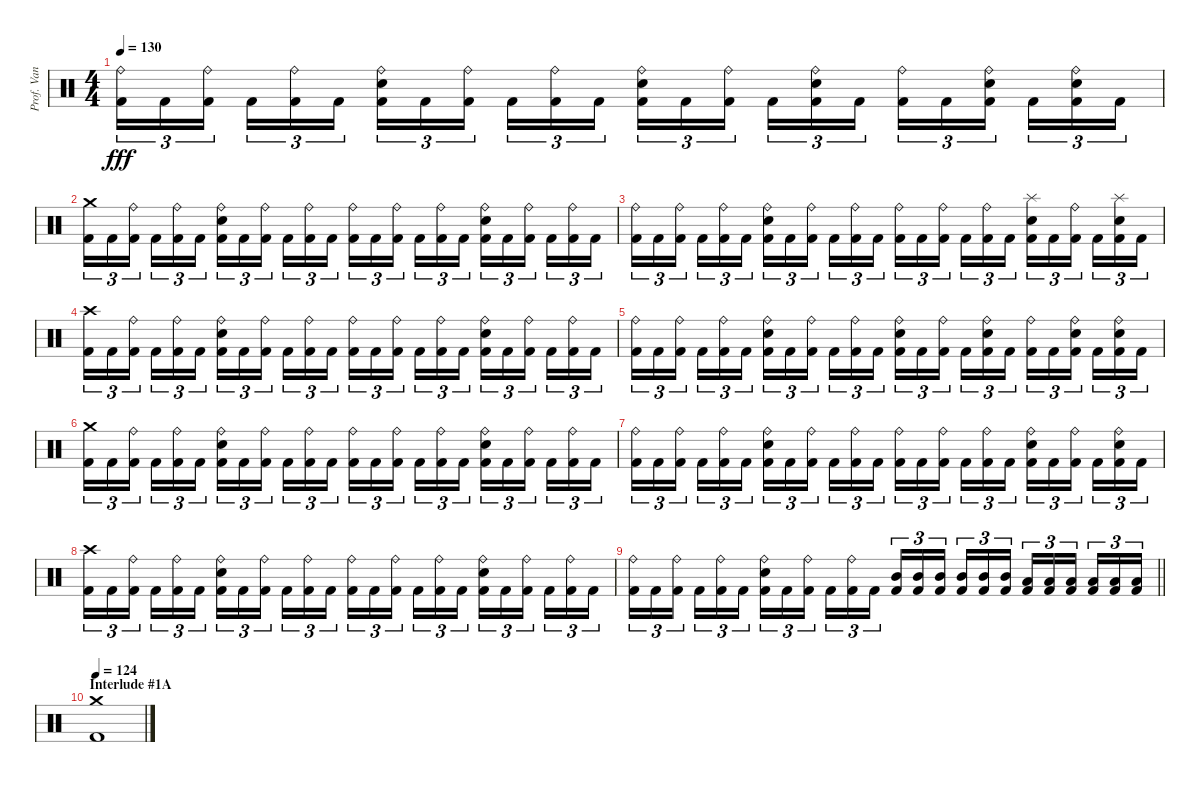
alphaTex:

\track ("Prof. Van Helsing (Drums)" "Prof. Van ") {instrument percussion}
\staff {score}
\articulation defaults
\ts (4 4)
\tempo 130
\clef neutral
\ks c
("Ride (bell)" "Kick (hit) 2").16{tu (3 2) dy fff} "Kick (hit) 2".16{tu (3 2)} ("Ride (bell)" "Kick (hit) 2").16{tu (3 2) beam splitsecondary} "Kick (hit) 2".16{tu (3 2)} ("Ride (bell)" "Kick (hit) 2").16{tu (3 2)} "Kick (hit) 2".16{tu (3 2)} ("Ride (bell)" "Snare (hit) 2" "Kick (hit) 2").16{tu (3 2)} "Kick (hit) 2".16{tu (3 2)} ("Ride (bell)" "Kick (hit) 2").16{tu (3 2) beam splitsecondary} "Kick (hit) 2".16{tu (3 2)} ("Ride (bell)" "Kick (hit) 2").16{tu (3 2)} "Kick (hit) 2".16{tu (3 2)} ("Ride (bell)" "Snare (hit) 2" "Kick (hit) 2").16{tu (3 2)} "Kick (hit) 2".16{tu (3 2)} ("Ride (bell)" "Kick (hit) 2").16{tu (3 2) beam splitsecondary} "Kick (hit) 2".16{tu (3 2)} ("Ride (bell)" "Snare (hit) 2" "Kick (hit) 2").16{tu (3 2)} "Kick (hit) 2".16{tu (3 2)} ("Ride (bell)" "Kick (hit) 2").16{tu (3 2)} "Kick (hit) 2".16{tu (3 2)} ("Ride (bell)" "Snare (hit) 2" "Kick (hit) 2").16{tu (3 2) beam splitsecondary} "Kick (hit) 2".16{tu (3 2)} ("Ride (bell)" "Snare (hit) 2" "Kick (hit) 2").16{tu (3 2)} "Kick (hit) 2".16{tu (3 2)} |
("Crash medium (hit)" "Kick (hit) 2").16{tu (3 2)} "Kick (hit) 2".16{tu (3 2)} ("Ride (bell)" "Kick (hit) 2").16{tu (3 2) beam splitsecondary} "Kick (hit) 2".16{tu (3 2)} ("Ride (bell)" "Kick (hit) 2").16{tu (3 2)} "Kick (hit) 2".16{tu (3 2)} ("Ride (bell)" "Snare (hit) 2" "Kick (hit) 2").16{tu (3 2)} "Kick (hit) 2".16{tu (3 2)} ("Ride (bell)" "Kick (hit) 2").16{tu (3 2) beam splitsecondary} "Kick (hit) 2".16{tu (3 2)} ("Ride (bell)" "Kick (hit) 2").16{tu (3 2)} "Kick (hit) 2".16{tu (3 2)} ("Ride (bell)" "Kick (hit) 2").16{tu (3 2)} "Kick (hit) 2".16{tu (3 2)} ("Ride (bell)" "Kick (hit) 2").16{tu (3 2) beam splitsecondary} "Kick (hit) 2".16{tu (3 2)} ("Ride (bell)" "Kick (hit) 2").16{tu (3 2)} "Kick (hit) 2".16{tu (3 2)} ("Ride (bell)" "Snare (hit) 2" "Kick (hit) 2").16{tu (3 2)} "Kick (hit) 2".16{tu (3 2)} ("Ride (bell)" "Kick (hit) 2").16{tu (3 2) beam splitsecondary} "Kick (hit) 2".16{tu (3 2)} ("Ride (bell)" "Kick (hit) 2").16{tu (3 2)} "Kick (hit) 2".16{tu (3 2)} |
("Ride (bell)" "Kick (hit) 2").16{tu (3 2)} "Kick (hit) 2".16{tu (3 2)} ("Ride (bell)" "Kick (hit) 2").16{tu (3 2) beam splitsecondary} "Kick (hit) 2".16{tu (3 2)} ("Ride (bell)" "Kick (hit) 2").16{tu (3 2)} "Kick (hit) 2".16{tu (3 2)} ("Ride (bell)" "Snare (hit) 2" "Kick (hit) 2").16{tu (3 2)} "Kick (hit) 2".16{tu (3 2)} ("Ride (bell)" "Kick (hit) 2").16{tu (3 2) beam splitsecondary} "Kick (hit) 2".16{tu (3 2)} ("Ride (bell)" "Kick (hit) 2").16{tu (3 2)} "Kick (hit) 2".16{tu (3 2)} ("Ride (bell)" "Kick (hit) 2").16{tu (3 2)} "Kick (hit) 2".16{tu (3 2)} ("Ride (bell)" "Kick (hit) 2").16{tu (3 2) beam splitsecondary} "Kick (hit) 2".16{tu (3 2)} ("Ride (bell)" "Kick (hit) 2").16{tu (3 2)} "Kick (hit) 2".16{tu (3 2)} ("Splash (hit)" "Snare (hit) 2" "Kick (hit) 2").16{tu (3 2)} "Kick (hit) 2".16{tu (3 2)} ("Ride (bell)" "Kick (hit) 2").16{tu (3 2) beam splitsecondary} "Kick (hit) 2".16{tu (3 2)} ("Splash (hit)" "Snare (hit) 2" "Kick (hit) 2").16{tu (3 2)} "Kick (hit) 2".16{tu (3 2)} |
("Crash high (hit)" "Kick (hit) 2").16{tu (3 2)} "Kick (hit) 2".16{tu (3 2)} ("Ride (bell)" "Kick (hit) 2").16{tu (3 2) beam splitsecondary} "Kick (hit) 2".16{tu (3 2)} ("Ride (bell)" "Kick (hit) 2").16{tu (3 2)} "Kick (hit) 2".16{tu (3 2)} ("Ride (bell)" "Snare (hit) 2" "Kick (hit) 2").16{tu (3 2)} "Kick (hit) 2".16{tu (3 2)} ("Ride (bell)" "Kick (hit) 2").16{tu (3 2) beam splitsecondary} "Kick (hit) 2".16{tu (3 2)} ("Ride (bell)" "Kick (hit) 2").16{tu (3 2)} "Kick (hit) 2".16{tu (3 2)} ("Ride (bell)" "Kick (hit) 2").16{tu (3 2)} "Kick (hit) 2".16{tu (3 2)} ("Ride (bell)" "Kick (hit) 2").16{tu (3 2) beam splitsecondary} "Kick (hit) 2".16{tu (3 2)} ("Ride (bell)" "Kick (hit) 2").16{tu (3 2)} "Kick (hit) 2".16{tu (3 2)} ("Ride (bell)" "Snare (hit) 2" "Kick (hit) 2").16{tu (3 2)} "Kick (hit) 2".16{tu (3 2)} ("Ride (bell)" "Kick (hit) 2").16{tu (3 2) beam splitsecondary} "Kick (hit) 2".16{tu (3 2)} ("Ride (bell)" "Kick (hit) 2").16{tu (3 2)} "Kick (hit) 2".16{tu (3 2)} |
("Ride (bell)" "Kick (hit) 2").16{tu (3 2)} "Kick (hit) 2".16{tu (3 2)} ("Ride (bell)" "Kick (hit) 2").16{tu (3 2) beam splitsecondary} "Kick (hit) 2".16{tu (3 2)} ("Ride (bell)" "Kick (hit) 2").16{tu (3 2)} "Kick (hit) 2".16{tu (3 2)} ("Ride (bell)" "Snare (hit) 2" "Kick (hit) 2").16{tu (3 2)} "Kick (hit) 2".16{tu (3 2)} ("Ride (bell)" "Kick (hit) 2").16{tu (3 2) beam splitsecondary} "Kick (hit) 2".16{tu (3 2)} ("Ride (bell)" "Kick (hit) 2").16{tu (3 2)} "Kick (hit) 2".16{tu (3 2)} ("Ride (bell)" "Snare (hit) 2" "Kick (hit) 2").16{tu (3 2)} "Kick (hit) 2".16{tu (3 2)} ("Ride (bell)" "Kick (hit) 2").16{tu (3 2) beam splitsecondary} "Kick (hit) 2".16{tu (3 2)} ("Ride (bell)" "Snare (hit) 2" "Kick (hit) 2").16{tu (3 2)} "Kick (hit) 2".16{tu (3 2)} ("Ride (bell)" "Kick (hit) 2").16{tu (3 2)} "Kick (hit) 2".16{tu (3 2)} ("Ride (bell)" "Snare (hit) 2" "Kick (hit) 2").16{tu (3 2) beam splitsecondary} "Kick (hit) 2".16{tu (3 2)} ("Ride (bell)" "Snare (hit) 2" "Kick (hit) 2").16{tu (3 2)} "Kick (hit) 2".16{tu (3 2)} |
("Crash medium (hit)" "Kick (hit) 2").16{tu (3 2)} "Kick (hit) 2".16{tu (3 2)} ("Ride (bell)" "Kick (hit) 2").16{tu (3 2) beam splitsecondary} "Kick (hit) 2".16{tu (3 2)} ("Ride (bell)" "Kick (hit) 2").16{tu (3 2)} "Kick (hit) 2".16{tu (3 2)} ("Ride (bell)" "Snare (hit) 2" "Kick (hit) 2").16{tu (3 2)} "Kick (hit) 2".16{tu (3 2)} ("Ride (bell)" "Kick (hit) 2").16{tu (3 2) beam splitsecondary} "Kick (hit) 2".16{tu (3 2)} ("Ride (bell)" "Kick (hit) 2").16{tu (3 2)} "Kick (hit) 2".16{tu (3 2)} ("Ride (bell)" "Kick (hit) 2").16{tu (3 2)} "Kick (hit) 2".16{tu (3 2)} ("Ride (bell)" "Kick (hit) 2").16{tu (3 2) beam splitsecondary} "Kick (hit) 2".16{tu (3 2)} ("Ride (bell)" "Kick (hit) 2").16{tu (3 2)} "Kick (hit) 2".16{tu (3 2)} ("Ride (bell)" "Snare (hit) 2" "Kick (hit) 2").16{tu (3 2)} "Kick (hit) 2".16{tu (3 2)} ("Ride (bell)" "Kick (hit) 2").16{tu (3 2) beam splitsecondary} "Kick (hit) 2".16{tu (3 2)} ("Ride (bell)" "Kick (hit) 2").16{tu (3 2)} "Kick (hit) 2".16{tu (3 2)} |
("Ride (bell)" "Kick (hit) 2").16{tu (3 2)} "Kick (hit) 2".16{tu (3 2)} ("Ride (bell)" "Kick (hit) 2").16{tu (3 2) beam splitsecondary} "Kick (hit) 2".16{tu (3 2)} ("Ride (bell)" "Kick (hit) 2").16{tu (3 2)} "Kick (hit) 2".16{tu (3 2)} ("Ride (bell)" "Snare (hit) 2" "Kick (hit) 2").16{tu (3 2)} "Kick (hit) 2".16{tu (3 2)} ("Ride (bell)" "Kick (hit) 2").16{tu (3 2) beam splitsecondary} "Kick (hit) 2".16{tu (3 2)} ("Ride (bell)" "Kick (hit) 2").16{tu (3 2)} "Kick (hit) 2".16{tu (3 2)} ("Ride (bell)" "Kick (hit) 2").16{tu (3 2)} "Kick (hit) 2".16{tu (3 2)} ("Ride (bell)" "Kick (hit) 2").16{tu (3 2) beam splitsecondary} "Kick (hit) 2".16{tu (3 2)} ("Ride (bell)" "Kick (hit) 2").16{tu (3 2)} "Kick (hit) 2".16{tu (3 2)} ("Ride (bell)" "Snare (hit) 2" "Kick (hit) 2").16{tu (3 2)} "Kick (hit) 2".16{tu (3 2)} ("Ride (bell)" "Kick (hit) 2").16{tu (3 2) beam splitsecondary} "Kick (hit) 2".16{tu (3 2)} ("Ride (bell)" "Snare (hit) 2" "Kick (hit) 2").16{tu (3 2)} "Kick (hit) 2".16{tu (3 2)} |
("Crash high (hit)" "Kick (hit) 2").16{tu (3 2)} "Kick (hit) 2".16{tu (3 2)} ("Ride (bell)" "Kick (hit) 2").16{tu (3 2) beam splitsecondary} "Kick (hit) 2".16{tu (3 2)} ("Ride (bell)" "Kick (hit) 2").16{tu (3 2)} "Kick (hit) 2".16{tu (3 2)} ("Ride (bell)" "Snare (hit) 2" "Kick (hit) 2").16{tu (3 2)} "Kick (hit) 2".16{tu (3 2)} ("Ride (bell)" "Kick (hit) 2").16{tu (3 2) beam splitsecondary} "Kick (hit) 2".16{tu (3 2)} ("Ride (bell)" "Kick (hit) 2").16{tu (3 2)} "Kick (hit) 2".16{tu (3 2)} ("Ride (bell)" "Kick (hit) 2").16{tu (3 2)} "Kick (hit) 2".16{tu (3 2)} ("Ride (bell)" "Kick (hit) 2").16{tu (3 2) beam splitsecondary} "Kick (hit) 2".16{tu (3 2)} ("Ride (bell)" "Kick (hit) 2").16{tu (3 2)} "Kick (hit) 2".16{tu (3 2)} ("Ride (bell)" "Snare (hit) 2" "Kick (hit) 2").16{tu (3 2)} "Kick (hit) 2".16{tu (3 2)} ("Ride (bell)" "Kick (hit) 2").16{tu (3 2) beam splitsecondary} "Kick (hit) 2".16{tu (3 2)} ("Ride (bell)" "Kick (hit) 2").16{tu (3 2)} "Kick (hit) 2".16{tu (3 2)} |
\barLineRight lightlight
("Ride (bell)" "Kick (hit) 2").16{tu (3 2)} "Kick (hit) 2".16{tu (3 2)} ("Ride (bell)" "Kick (hit) 2").16{tu (3 2) beam splitsecondary} "Kick (hit) 2".16{tu (3 2)} ("Ride (bell)" "Kick (hit) 2").16{tu (3 2)} "Kick (hit) 2".16{tu (3 2)} ("Ride (bell)" "Snare (hit) 2" "Kick (hit) 2").16{tu (3 2)} "Kick (hit) 2".16{tu (3 2)} ("Ride (bell)" "Kick (hit) 2").16{tu (3 2) beam splitsecondary} "Kick (hit) 2".16{tu (3 2)} ("Ride (bell)" "Kick (hit) 2").16{tu (3 2)} "Kick (hit) 2".16{tu (3 2)} ("Mid Tom (hit)" "Kick (hit) 2").16{tu (3 2)} ("Mid Tom (hit)" "Kick (hit) 2").16{tu (3 2)} ("Mid Tom (hit)" "Kick (hit) 2").16{tu (3 2) beam splitsecondary} ("Mid Tom (hit)" "Kick (hit) 2").16{tu (3 2)} ("Mid Tom (hit)" "Kick (hit) 2").16{tu (3 2)} ("Mid Tom (hit)" "Kick (hit) 2").16{tu (3 2)} ("Low Tom (hit)" "Kick (hit) 2").16{tu (3 2)} ("Low Tom (hit)" "Kick (hit) 2").16{tu (3 2)} ("Low Tom (hit)" "Kick (hit) 2").16{tu (3 2) beam splitsecondary} ("Low Tom (hit)" "Kick (hit) 2").16{tu (3 2)} ("Low Tom (hit)" "Kick (hit) 2").16{tu (3 2)} ("Low Tom (hit)" "Kick (hit) 2").16{tu (3 2)} |
\section ("" "Interlude #1A")
\tempo 124
("Crash medium (hit)" "Kick (hit) 2").1
